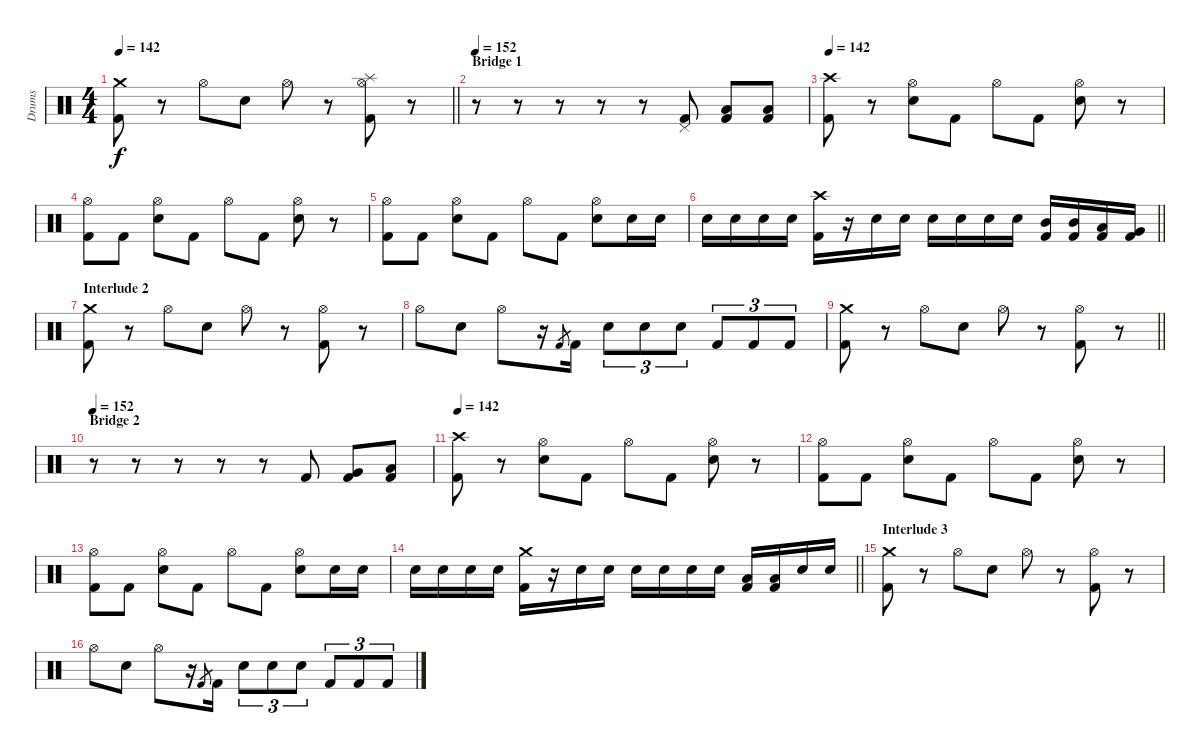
\track ("Drums" "Drums") {instrument percussion}
\staff {score}
\articulation defaults
\ts (4 4)
\tempo 142
\clef neutral
\barLineRight lightlight
\ks c
("Crash medium (hit)" "Kick (hit) 2").8{dy f} r.8 "Hi-Hat (open)".8 "Electric Snare (hit)".8 "Hi-Hat (open)".8 r.8 ("Hi-Hat (open)" "Splash (hit)" "Kick (hit) 2").8 r.8 |
\section ("" "Bridge 1")
\tempo 152
r.8 r.8 r.8 r.8 r.8 ("Pedal Hi-Hat (hit)" "Kick (hit) 2").8 ("Low Floor Tom (hit)" "Kick (hit) 2").8 ("Low Floor Tom (hit)" "Kick (hit) 2").8 |
\tempo 142
("Crash high (hit)" "Kick (hit) 2").8 r.8 ("Hi-Hat (open)" "Electric Snare (hit)").8 "Kick (hit) 2".8 "Hi-Hat (open)".8 "Kick (hit) 2".8 ("Hi-Hat (open)" "Electric Snare (hit)").8 r.8 |
("Hi-Hat (open)" "Kick (hit) 2").8 "Kick (hit) 2".8 ("Hi-Hat (open)" "Electric Snare (hit)").8 "Kick (hit) 2".8 "Hi-Hat (open)".8 "Kick (hit) 2".8 ("Hi-Hat (open)" "Electric Snare (hit)").8 r.8 |
("Hi-Hat (open)" "Kick (hit) 2").8 "Kick (hit) 2".8 ("Hi-Hat (open)" "Electric Snare (hit)").8 "Kick (hit) 2".8 "Hi-Hat (open)".8 "Kick (hit) 2".8 ("Hi-Hat (open)" "Electric Snare (hit)").8 "Electric Snare (hit)".16 "Electric Snare (hit)".16 |
\barLineRight lightlight "Electric Snare (hit)".16 "Electric Snare (hit)".16 "Electric Snare (hit)".16 "Electric Snare (hit)".16
("Crash high (hit)" "Kick (hit) 2").16 r.16 "Electric Snare (hit)".16 "Electric Snare (hit)".16 "Electric Snare (hit)".16 "Electric Snare (hit)".16 "Electric Snare (hit)".16 "Electric Snare (hit)".16 ("Mid Tom (hit)" "Kick (hit) 2").16 ("Mid Tom (hit)" "Kick (hit) 2").16 ("Low Tom (hit)" "Kick (hit) 2").16 ("Very Low Tom (hit)" "Kick (hit) 2").16 |
\section ("" "Interlude 2")
("Crash medium (hit)" "Kick (hit) 2").8 r.8 "Hi-Hat (open)".8 "Electric Snare (hit)".8 "Hi-Hat (open)".8 r.8 ("Hi-Hat (open)" "Kick (hit) 2").8 r.8 |
"Hi-Hat (open)".8 "Electric Snare (hit)".8 "Hi-Hat (open)".8 r.16 "Kick (hit) 2".8{gr} "Kick (hit) 2".16 "Electric Snare (hit)".8{tu (3 2)} "Electric Snare (hit)".8{tu (3 2)} "Electric Snare (hit)".8{tu (3 2)} "Kick (hit) 2".8{tu (3 2)} "Kick (hit) 2".8{tu (3 2)} "Kick (hit) 2".8{tu (3 2)} |
\barLineRight lightlight
("Crash medium (hit)" "Kick (hit) 2").8 r.8 "Hi-Hat (open)".8 "Electric Snare (hit)".8 "Hi-Hat (open)".8 r.8 ("Hi-Hat (open)" "Kick (hit) 2").8 r.8 |
\section ("" "Bridge 2")
\tempo 152
r.8 r.8 r.8 r.8 r.8 "Kick (hit) 2".8 ("Very Low Tom (hit)" "Kick (hit) 2").8 ("Low Floor Tom (hit)" "Kick (hit) 2").8 |
\tempo 142
("Crash high (hit)" "Kick (hit) 2").8 r.8 ("Hi-Hat (open)" "Electric Snare (hit)").8 "Kick (hit) 2".8 "Hi-Hat (open)".8 "Kick (hit) 2".8 ("Hi-Hat (open)" "Electric Snare (hit)").8 r.8 |
("Hi-Hat (open)" "Kick (hit) 2").8 "Kick (hit) 2".8 ("Hi-Hat (open)" "Electric Snare (hit)").8 "Kick (hit) 2".8 "Hi-Hat (open)".8 "Kick (hit) 2".8 ("Hi-Hat (open)" "Electric Snare (hit)").8 r.8 |
("Hi-Hat (open)" "Kick (hit) 2").8 "Kick (hit) 2".8 ("Hi-Hat (open)" "Electric Snare (hit)").8 "Kick (hit) 2".8 "Hi-Hat (open)".8 "Kick (hit) 2".8 ("Hi-Hat (open)" "Electric Snare (hit)").8 "Electric Snare (hit)".16 "Electric Snare (hit)".16 |
\barLineRight lightlight "Electric Snare (hit)".16 "Electric Snare (hit)".16 "Electric Snare (hit)".16 "Electric Snare (hit)".16
("Crash medium (hit)" "Kick (hit) 2").16 r.16 "Electric Snare (hit)".16 "Electric Snare (hit)".16 "Electric Snare (hit)".16 "Electric Snare (hit)".16 "Electric Snare (hit)".16 "Electric Snare (hit)".16 ("Low Tom (hit)" "Kick (hit) 2").16 ("Low Tom (hit)" "Kick (hit) 2").16 "Electric Snare (hit)".16 "Electric Snare (hit)".16 |
\section ("" "Interlude 3")
("Crash medium (hit)" "Kick (hit) 2").8 r.8 "Hi-Hat (open)".8 "Electric Snare (hit)".8 "Hi-Hat (open)".8 r.8 ("Hi-Hat (open)" "Kick (hit) 2").8 r.8 |
"Hi-Hat (open)".8 "Electric Snare (hit)".8 "Hi-Hat (open)".8 r.16 "Kick (hit) 2".8{gr} "Kick (hit) 2".16 "Electric Snare (hit)".8{tu (3 2)} "Electric Snare (hit)".8{tu (3 2)} "Electric Snare (hit)".8{tu (3 2)} "Kick (hit) 2".8{tu (3 2)} "Kick (hit) 2".8{tu (3 2)} "Kick (hit) 2".8{tu (3 2)}
